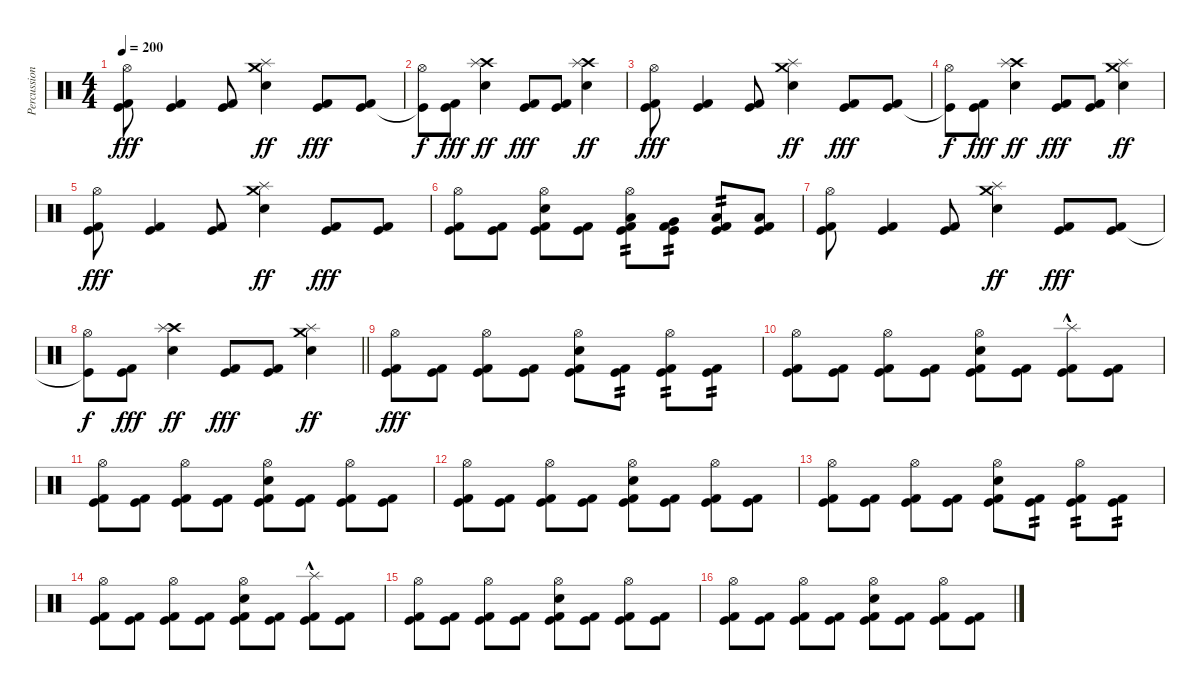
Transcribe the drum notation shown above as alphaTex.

\track ("Percussion" "Percussion") {instrument percussion}
\staff {score}
\articulation defaults
\ts (4 4)
\tempo 200
\clef neutral
\ks c
("Hi-Hat (open)" "Kick (hit) 2" "Kick (hit)").8{dy fff} ("Kick (hit) 2" "Kick (hit)").4 ("Kick (hit) 2" "Kick (hit)").8 ("Crash medium (hit)" "Splash (hit)" "Electric Snare (hit)").4{dy ff} ("Kick (hit) 2" "Kick (hit)").8{dy fff} ("Kick (hit) 2" "Kick (hit)").8 |
("Hi-Hat (open)" "Kick (hit)"{t}).8{dy f} ("Kick (hit) 2" "Kick (hit)").8{dy fff} ("Crash high (hit)" "Splash (hit)" "Electric Snare (hit)").4{dy ff} ("Kick (hit) 2" "Kick (hit)").8{dy fff} ("Kick (hit) 2" "Kick (hit)").8 ("Crash high (hit)" "Splash (hit)" "Electric Snare (hit)").4{dy ff} |
("Hi-Hat (open)" "Kick (hit) 2" "Kick (hit)").8{dy fff} ("Kick (hit) 2" "Kick (hit)").4 ("Kick (hit) 2" "Kick (hit)").8 ("Crash medium (hit)" "Splash (hit)" "Electric Snare (hit)").4{dy ff} ("Kick (hit) 2" "Kick (hit)").8{dy fff} ("Kick (hit) 2" "Kick (hit)").8 |
("Hi-Hat (open)" "Kick (hit)"{t}).8{dy f} ("Kick (hit) 2" "Kick (hit)").8{dy fff} ("Crash high (hit)" "Splash (hit)" "Electric Snare (hit)").4{dy ff} ("Kick (hit) 2" "Kick (hit)").8{dy fff} ("Kick (hit) 2" "Kick (hit)").8 ("Crash medium (hit)" "Splash (hit)" "Electric Snare (hit)").4{dy ff} |
("Hi-Hat (open)" "Kick (hit) 2" "Kick (hit)").8{dy fff} ("Kick (hit) 2" "Kick (hit)").4 ("Kick (hit) 2" "Kick (hit)").8 ("Crash medium (hit)" "Splash (hit)" "Electric Snare (hit)").4{dy ff} ("Kick (hit) 2" "Kick (hit)").8{dy fff} ("Kick (hit) 2" "Kick (hit)").8 |
("Hi-Hat (open)" "Kick (hit) 2" "Kick (hit)").8 ("Kick (hit) 2" "Kick (hit)").8 ("Hi-Hat (open)" "Electric Snare (hit)" "Kick (hit) 2" "Kick (hit)").8 ("Kick (hit) 2" "Kick (hit)").8 ("Hi-Hat (open)" "Low Tom (hit)" "Kick (hit) 2" "Kick (hit)").8{tp 2} ("Very Low Tom (hit)" "Kick (hit) 2" "Kick (hit)").8{tp 2} ("Low Floor Tom (hit)" "Kick (hit) 2" "Kick (hit)").8{tp 2} ("Low Floor Tom (hit)" "Kick (hit) 2" "Kick (hit)").8 |
("Hi-Hat (open)" "Kick (hit) 2" "Kick (hit)").8 ("Kick (hit) 2" "Kick (hit)").4 ("Kick (hit) 2" "Kick (hit)").8 ("Crash medium (hit)" "Splash (hit)" "Electric Snare (hit)").4{dy ff} ("Kick (hit) 2" "Kick (hit)").8{dy fff} ("Kick (hit) 2" "Kick (hit)").8 |
\barLineRight lightlight
("Hi-Hat (open)" "Kick (hit)"{t}).8{dy f} ("Kick (hit) 2" "Kick (hit)").8{dy fff} ("Crash high (hit)" "Splash (hit)" "Electric Snare (hit)").4{dy ff} ("Kick (hit) 2" "Kick (hit)").8{dy fff} ("Kick (hit) 2" "Kick (hit)").8 ("Crash medium (hit)" "Splash (hit)" "Electric Snare (hit)").4{dy ff} |
("Hi-Hat (open)" "Kick (hit) 2" "Kick (hit)").8{dy fff} ("Kick (hit) 2" "Kick (hit)").8 ("Hi-Hat (open)" "Kick (hit) 2" "Kick (hit)").8 ("Kick (hit) 2" "Kick (hit)").8 ("Hi-Hat (open)" "Electric Snare (hit)" "Kick (hit) 2" "Kick (hit)").8 ("Kick (hit) 2" "Kick (hit)").8{tp 2} ("Hi-Hat (open)" "Kick (hit) 2" "Kick (hit)").8{tp 2} ("Kick (hit) 2" "Kick (hit)").8{tp 2} |
("Hi-Hat (open)" "Kick (hit) 2" "Kick (hit)").8 ("Kick (hit) 2" "Kick (hit)").8 ("Hi-Hat (open)" "Kick (hit) 2" "Kick (hit)").8 ("Kick (hit) 2" "Kick (hit)").8 ("Hi-Hat (open)" "Electric Snare (hit)" "Kick (hit) 2" "Kick (hit)").8 ("Kick (hit) 2" "Kick (hit)").8 ("Splash (hit)"{hac} "Kick (hit) 2" "Kick (hit)").8 ("Kick (hit) 2" "Kick (hit)").8 |
("Hi-Hat (open)" "Kick (hit) 2" "Kick (hit)").8 ("Kick (hit) 2" "Kick (hit)").8 ("Hi-Hat (open)" "Kick (hit) 2" "Kick (hit)").8 ("Kick (hit) 2" "Kick (hit)").8 ("Hi-Hat (open)" "Electric Snare (hit)" "Kick (hit) 2" "Kick (hit)").8 ("Kick (hit) 2" "Kick (hit)").8 ("Hi-Hat (open)" "Kick (hit) 2" "Kick (hit)").8 ("Kick (hit) 2" "Kick (hit)").8 |
("Hi-Hat (open)" "Kick (hit) 2" "Kick (hit)").8 ("Kick (hit) 2" "Kick (hit)").8 ("Hi-Hat (open)" "Kick (hit) 2" "Kick (hit)").8 ("Kick (hit) 2" "Kick (hit)").8 ("Hi-Hat (open)" "Electric Snare (hit)" "Kick (hit) 2" "Kick (hit)").8 ("Kick (hit) 2" "Kick (hit)").8 ("Hi-Hat (open)" "Kick (hit) 2" "Kick (hit)").8 ("Kick (hit) 2" "Kick (hit)").8 |
("Hi-Hat (open)" "Kick (hit) 2" "Kick (hit)").8 ("Kick (hit) 2" "Kick (hit)").8 ("Hi-Hat (open)" "Kick (hit) 2" "Kick (hit)").8 ("Kick (hit) 2" "Kick (hit)").8 ("Hi-Hat (open)" "Electric Snare (hit)" "Kick (hit) 2" "Kick (hit)").8 ("Kick (hit) 2" "Kick (hit)").8{tp 2} ("Hi-Hat (open)" "Kick (hit) 2" "Kick (hit)").8{tp 2} ("Kick (hit) 2" "Kick (hit)").8{tp 2} |
("Hi-Hat (open)" "Kick (hit) 2" "Kick (hit)").8 ("Kick (hit) 2" "Kick (hit)").8 ("Hi-Hat (open)" "Kick (hit) 2" "Kick (hit)").8 ("Kick (hit) 2" "Kick (hit)").8 ("Hi-Hat (open)" "Electric Snare (hit)" "Kick (hit) 2" "Kick (hit)").8 ("Kick (hit) 2" "Kick (hit)").8 ("Splash (hit)"{hac} "Kick (hit) 2" "Kick (hit)").8 ("Kick (hit) 2" "Kick (hit)").8 |
("Hi-Hat (open)" "Kick (hit) 2" "Kick (hit)").8 ("Kick (hit) 2" "Kick (hit)").8 ("Hi-Hat (open)" "Kick (hit) 2" "Kick (hit)").8 ("Kick (hit) 2" "Kick (hit)").8 ("Hi-Hat (open)" "Electric Snare (hit)" "Kick (hit) 2" "Kick (hit)").8 ("Kick (hit) 2" "Kick (hit)").8 ("Hi-Hat (open)" "Kick (hit) 2" "Kick (hit)").8 ("Kick (hit) 2" "Kick (hit)").8 |
("Hi-Hat (open)" "Kick (hit) 2" "Kick (hit)").8 ("Kick (hit) 2" "Kick (hit)").8 ("Hi-Hat (open)" "Kick (hit) 2" "Kick (hit)").8 ("Kick (hit) 2" "Kick (hit)").8 ("Hi-Hat (open)" "Electric Snare (hit)" "Kick (hit) 2" "Kick (hit)").8 ("Kick (hit) 2" "Kick (hit)").8 ("Hi-Hat (open)" "Kick (hit) 2" "Kick (hit)").8 ("Kick (hit) 2" "Kick (hit)").8
